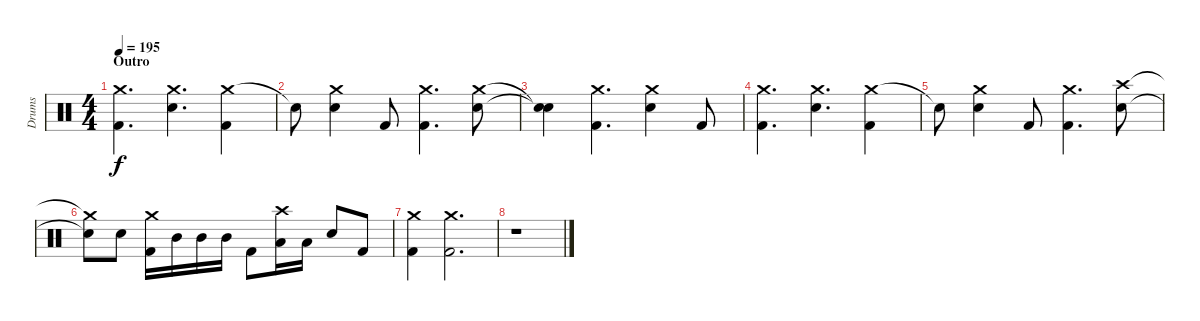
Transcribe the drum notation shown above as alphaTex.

\track ("Drums" "Drums") {instrument percussion}
\staff {score}
\articulation defaults
\ts (4 4)
\section ("" "Outro")
\tempo 195
\clef neutral
\ks c
("Crash medium (hit)" "Kick (hit) 2").4{d dy f} ("Crash medium (hit)" "Electric Snare (hit)").4{d} ("Crash medium (hit)" "Kick (hit) 2").4 |
"Snare (hit)"{t}.8 ("Crash medium (hit)" "Electric Snare (hit)").4 "Kick (hit) 2".8 ("Crash medium (hit)" "Kick (hit) 2").4{d} ("Crash medium (hit)" "Electric Snare (hit)").8 |
("Snare (hit)"{t} "Snare (hit)"{t}).4 ("Crash medium (hit)" "Kick (hit) 2").4{d} ("Crash medium (hit)" "Electric Snare (hit)").4 "Kick (hit) 2".8 |
("Crash medium (hit)" "Kick (hit) 2").4{d} ("Crash medium (hit)" "Electric Snare (hit)").4{d} ("Crash medium (hit)" "Kick (hit) 2").4 |
"Snare (hit)"{t}.8 ("Crash medium (hit)" "Electric Snare (hit)").4 "Kick (hit) 2".8 ("Crash medium (hit)" "Kick (hit) 2").4{d} ("Crash high (hit)" "Electric Snare (hit)").8 |
("Crash medium (hit)"{t} "Electric Snare (hit)"{t}).8 "Electric Snare (hit)".8 ("Crash medium (hit)" "Kick (hit) 2").16 "Mid Tom (hit)".16 "Mid Tom (hit)".16 "Mid Tom (hit)".16 "Kick (hit) 2".8 ("Crash high (hit)" "Low Tom (hit)").16 "Low Tom (hit)".16 "Electric Snare (hit)".8 "Kick (hit) 2".8 |
("Crash medium (hit)" "Kick (hit) 2").4 ("Crash medium (hit)" "Kick (hit) 2").2{d} |
r.1
